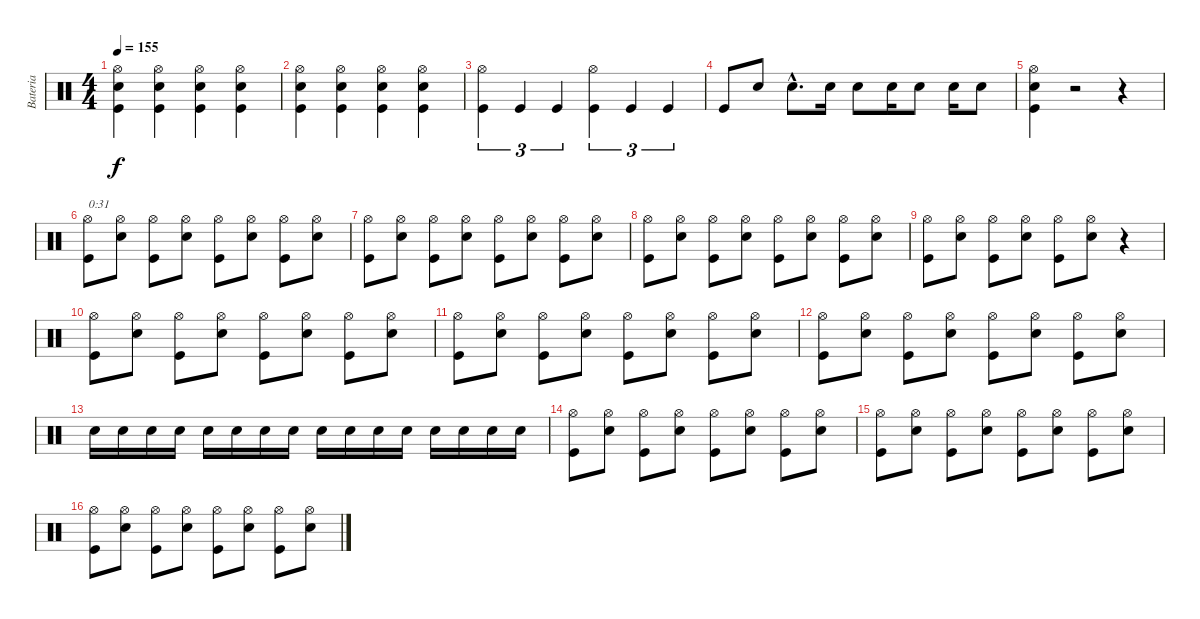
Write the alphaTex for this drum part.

\track ("Bateria" "Bateria") {instrument percussion}
\staff {score}
\articulation defaults
\ts (4 4)
\tempo 155
\clef neutral
\ks c
("Kick (hit)" "Snare (hit) 2" "Hi-Hat (open)").4{dy f} ("Kick (hit)" "Snare (hit) 2" "Hi-Hat (open)").4 ("Kick (hit)" "Snare (hit) 2" "Hi-Hat (open)").4 ("Kick (hit)" "Snare (hit) 2" "Hi-Hat (open)").4 |
("Kick (hit)" "Snare (hit) 2" "Hi-Hat (open)").4 ("Kick (hit)" "Snare (hit) 2" "Hi-Hat (open)").4 ("Kick (hit)" "Snare (hit) 2" "Hi-Hat (open)").4 ("Kick (hit)" "Snare (hit) 2" "Hi-Hat (open)").4 |
("Kick (hit)" "Hi-Hat (open)").4{tu (3 2)} "Kick (hit)".4{tu (3 2)} "Kick (hit)".4{tu (3 2)} ("Kick (hit)" "Hi-Hat (open)").4{tu (3 2)} "Kick (hit)".4{tu (3 2)} "Kick (hit)".4{tu (3 2)} |
"Kick (hit)".8 "Snare (hit) 2".8 "Snare (hit) 2"{hac}.8{d} "Snare (hit) 2".16 "Snare (hit) 2".8 "Snare (hit) 2".16 "Snare (hit) 2".8 "Snare (hit) 2".16 "Snare (hit) 2".8 |
("Kick (hit)" "Snare (hit) 2" "Hi-Hat (open)").4 r.2 r.4 |
("Kick (hit)" "Hi-Hat (open)").8{txt "0:31"} ("Snare (hit) 2" "Hi-Hat (open)").8 ("Kick (hit)" "Hi-Hat (open)").8 ("Snare (hit) 2" "Hi-Hat (open)").8 ("Kick (hit)" "Hi-Hat (open)").8 ("Snare (hit) 2" "Hi-Hat (open)").8 ("Kick (hit)" "Hi-Hat (open)").8 ("Snare (hit) 2" "Hi-Hat (open)").8 |
("Kick (hit)" "Hi-Hat (open)").8 ("Snare (hit) 2" "Hi-Hat (open)").8 ("Kick (hit)" "Hi-Hat (open)").8 ("Snare (hit) 2" "Hi-Hat (open)").8 ("Kick (hit)" "Hi-Hat (open)").8 ("Snare (hit) 2" "Hi-Hat (open)").8 ("Kick (hit)" "Hi-Hat (open)").8 ("Snare (hit) 2" "Hi-Hat (open)").8 |
("Kick (hit)" "Hi-Hat (open)").8 ("Snare (hit) 2" "Hi-Hat (open)").8 ("Kick (hit)" "Hi-Hat (open)").8 ("Snare (hit) 2" "Hi-Hat (open)").8 ("Kick (hit)" "Hi-Hat (open)").8 ("Snare (hit) 2" "Hi-Hat (open)").8 ("Kick (hit)" "Hi-Hat (open)").8 ("Snare (hit) 2" "Hi-Hat (open)").8 |
("Kick (hit)" "Hi-Hat (open)").8 ("Snare (hit) 2" "Hi-Hat (open)").8 ("Kick (hit)" "Hi-Hat (open)").8 ("Snare (hit) 2" "Hi-Hat (open)").8 ("Kick (hit)" "Hi-Hat (open)").8 ("Snare (hit) 2" "Hi-Hat (open)").8 r.4 |
("Kick (hit)" "Hi-Hat (open)").8 ("Snare (hit) 2" "Hi-Hat (open)").8 ("Kick (hit)" "Hi-Hat (open)").8 ("Snare (hit) 2" "Hi-Hat (open)").8 ("Kick (hit)" "Hi-Hat (open)").8 ("Snare (hit) 2" "Hi-Hat (open)").8 ("Kick (hit)" "Hi-Hat (open)").8 ("Snare (hit) 2" "Hi-Hat (open)").8 |
("Kick (hit)" "Hi-Hat (open)").8 ("Snare (hit) 2" "Hi-Hat (open)").8 ("Kick (hit)" "Hi-Hat (open)").8 ("Snare (hit) 2" "Hi-Hat (open)").8 ("Kick (hit)" "Hi-Hat (open)").8 ("Snare (hit) 2" "Hi-Hat (open)").8 ("Kick (hit)" "Hi-Hat (open)").8 ("Snare (hit) 2" "Hi-Hat (open)").8 |
("Kick (hit)" "Hi-Hat (open)").8 ("Snare (hit) 2" "Hi-Hat (open)").8 ("Kick (hit)" "Hi-Hat (open)").8 ("Snare (hit) 2" "Hi-Hat (open)").8 ("Kick (hit)" "Hi-Hat (open)").8 ("Snare (hit) 2" "Hi-Hat (open)").8 ("Kick (hit)" "Hi-Hat (open)").8 ("Snare (hit) 2" "Hi-Hat (open)").8 |
"Snare (hit) 2".16 "Snare (hit) 2".16 "Snare (hit) 2".16 "Snare (hit) 2".16 "Snare (hit) 2".16 "Snare (hit) 2".16 "Snare (hit) 2".16 "Snare (hit) 2".16 "Snare (hit) 2".16 "Snare (hit) 2".16 "Snare (hit) 2".16 "Snare (hit) 2".16 "Snare (hit) 2".16 "Snare (hit) 2".16 "Snare (hit) 2".16 "Snare (hit) 2".16 |
("Kick (hit)" "Hi-Hat (open)").8 ("Snare (hit) 2" "Hi-Hat (open)").8 ("Kick (hit)" "Hi-Hat (open)").8 ("Snare (hit) 2" "Hi-Hat (open)").8 ("Kick (hit)" "Hi-Hat (open)").8 ("Snare (hit) 2" "Hi-Hat (open)").8 ("Kick (hit)" "Hi-Hat (open)").8 ("Snare (hit) 2" "Hi-Hat (open)").8 |
("Kick (hit)" "Hi-Hat (open)").8 ("Snare (hit) 2" "Hi-Hat (open)").8 ("Kick (hit)" "Hi-Hat (open)").8 ("Snare (hit) 2" "Hi-Hat (open)").8 ("Kick (hit)" "Hi-Hat (open)").8 ("Snare (hit) 2" "Hi-Hat (open)").8 ("Kick (hit)" "Hi-Hat (open)").8 ("Snare (hit) 2" "Hi-Hat (open)").8 |
("Kick (hit)" "Hi-Hat (open)").8 ("Snare (hit) 2" "Hi-Hat (open)").8 ("Kick (hit)" "Hi-Hat (open)").8 ("Snare (hit) 2" "Hi-Hat (open)").8 ("Kick (hit)" "Hi-Hat (open)").8 ("Snare (hit) 2" "Hi-Hat (open)").8 ("Kick (hit)" "Hi-Hat (open)").8 ("Snare (hit) 2" "Hi-Hat (open)").8
